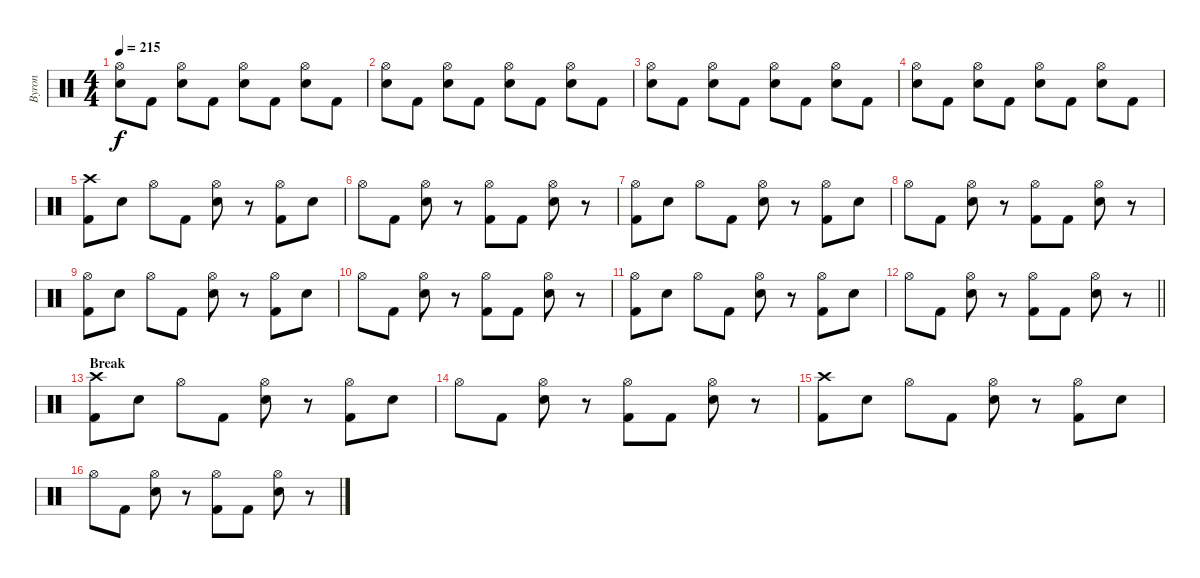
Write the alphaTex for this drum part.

\track ("Byron" "Byron") {instrument percussion}
\staff {score}
\articulation defaults
\ts (4 4)
\tempo 215
\clef neutral
\ks c
("Hi-Hat (open)" "Electric Snare (hit)").8{dy f} "Kick (hit) 2".8 ("Hi-Hat (open)" "Electric Snare (hit)").8 "Kick (hit) 2".8 ("Hi-Hat (open)" "Electric Snare (hit)").8 "Kick (hit) 2".8 ("Hi-Hat (open)" "Electric Snare (hit)").8 "Kick (hit) 2".8 |
("Hi-Hat (open)" "Electric Snare (hit)").8 "Kick (hit) 2".8 ("Hi-Hat (open)" "Electric Snare (hit)").8 "Kick (hit) 2".8 ("Hi-Hat (open)" "Electric Snare (hit)").8 "Kick (hit) 2".8 ("Hi-Hat (open)" "Electric Snare (hit)").8 "Kick (hit) 2".8 |
("Hi-Hat (open)" "Electric Snare (hit)").8 "Kick (hit) 2".8 ("Hi-Hat (open)" "Electric Snare (hit)").8 "Kick (hit) 2".8 ("Hi-Hat (open)" "Electric Snare (hit)").8 "Kick (hit) 2".8 ("Hi-Hat (open)" "Electric Snare (hit)").8 "Kick (hit) 2".8 |
("Hi-Hat (open)" "Electric Snare (hit)").8 "Kick (hit) 2".8 ("Hi-Hat (open)" "Electric Snare (hit)").8 "Kick (hit) 2".8 ("Hi-Hat (open)" "Electric Snare (hit)").8 "Kick (hit) 2".8 ("Hi-Hat (open)" "Electric Snare (hit)").8 "Kick (hit) 2".8 |
("Crash high (hit)" "Kick (hit) 2").8 "Electric Snare (hit)".8 "Hi-Hat (open)".8 "Kick (hit) 2".8 ("Hi-Hat (open)" "Electric Snare (hit)").8 r.8 ("Hi-Hat (open)" "Kick (hit) 2").8 "Electric Snare (hit)".8 |
"Hi-Hat (open)".8 "Kick (hit) 2".8 ("Hi-Hat (open)" "Electric Snare (hit)").8 r.8 ("Hi-Hat (open)" "Kick (hit) 2").8 "Kick (hit) 2".8 ("Hi-Hat (open)" "Electric Snare (hit)").8 r.8 |
("Hi-Hat (open)" "Kick (hit) 2").8 "Electric Snare (hit)".8 "Hi-Hat (open)".8 "Kick (hit) 2".8 ("Hi-Hat (open)" "Electric Snare (hit)").8 r.8 ("Hi-Hat (open)" "Kick (hit) 2").8 "Electric Snare (hit)".8 |
"Hi-Hat (open)".8 "Kick (hit) 2".8 ("Hi-Hat (open)" "Electric Snare (hit)").8 r.8 ("Hi-Hat (open)" "Kick (hit) 2").8 "Kick (hit) 2".8 ("Hi-Hat (open)" "Electric Snare (hit)").8 r.8 |
("Hi-Hat (open)" "Kick (hit) 2").8 "Electric Snare (hit)".8 "Hi-Hat (open)".8 "Kick (hit) 2".8 ("Hi-Hat (open)" "Electric Snare (hit)").8 r.8 ("Hi-Hat (open)" "Kick (hit) 2").8 "Electric Snare (hit)".8 |
"Hi-Hat (open)".8 "Kick (hit) 2".8 ("Hi-Hat (open)" "Electric Snare (hit)").8 r.8 ("Hi-Hat (open)" "Kick (hit) 2").8 "Kick (hit) 2".8 ("Hi-Hat (open)" "Electric Snare (hit)").8 r.8 |
("Hi-Hat (open)" "Kick (hit) 2").8 "Electric Snare (hit)".8 "Hi-Hat (open)".8 "Kick (hit) 2".8 ("Hi-Hat (open)" "Electric Snare (hit)").8 r.8 ("Hi-Hat (open)" "Kick (hit) 2").8 "Electric Snare (hit)".8 |
\barLineRight lightlight "Hi-Hat (open)".8 "Kick (hit) 2".8
("Hi-Hat (open)" "Electric Snare (hit)").8 r.8 ("Hi-Hat (open)" "Kick (hit) 2").8 "Kick (hit) 2".8 ("Hi-Hat (open)" "Electric Snare (hit)").8 r.8 |
\section ("" "Break")
("Crash high (hit)" "Kick (hit) 2").8 "Electric Snare (hit)".8 "Hi-Hat (open)".8 "Kick (hit) 2".8 ("Hi-Hat (open)" "Electric Snare (hit)").8 r.8 ("Hi-Hat (open)" "Kick (hit) 2").8 "Electric Snare (hit)".8 |
"Hi-Hat (open)".8 "Kick (hit) 2".8 ("Hi-Hat (open)" "Electric Snare (hit)").8 r.8 ("Hi-Hat (open)" "Kick (hit) 2").8 "Kick (hit) 2".8 ("Hi-Hat (open)" "Electric Snare (hit)").8 r.8 |
("Crash high (hit)" "Kick (hit) 2").8 "Electric Snare (hit)".8 "Hi-Hat (open)".8 "Kick (hit) 2".8 ("Hi-Hat (open)" "Electric Snare (hit)").8 r.8 ("Hi-Hat (open)" "Kick (hit) 2").8 "Electric Snare (hit)".8 |
"Hi-Hat (open)".8 "Kick (hit) 2".8 ("Hi-Hat (open)" "Electric Snare (hit)").8 r.8 ("Hi-Hat (open)" "Kick (hit) 2").8 "Kick (hit) 2".8 ("Hi-Hat (open)" "Electric Snare (hit)").8 r.8
